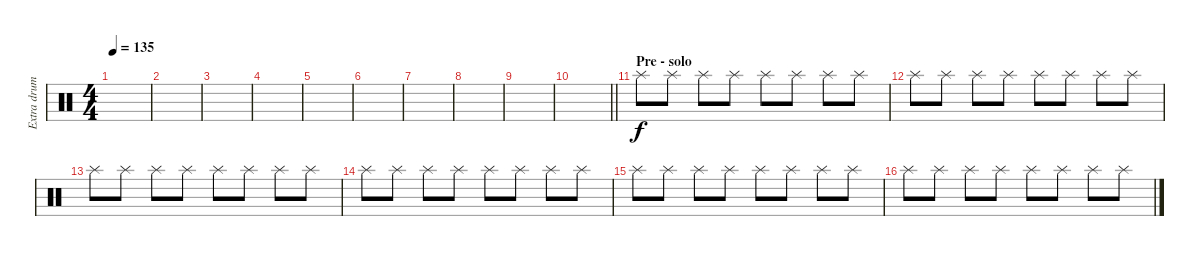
\track ("Extra drums" "Extra drum") {instrument percussion}
\staff {score}
\articulation defaults
\ts (4 4)
\tempo 135
\clef neutral
\ks c
|
|
|
|
|
|
|
|
|
\barLineRight lightlight
|
\section ("" "Pre - solo")
"Splash (hit)".8 "Splash (hit)".8 "Splash (hit)".8 "Splash (hit)".8 "Splash (hit)".8 "Splash (hit)".8 "Splash (hit)".8 "Splash (hit)".8 |
"Splash (hit)".8 "Splash (hit)".8 "Splash (hit)".8 "Splash (hit)".8 "Splash (hit)".8 "Splash (hit)".8 "Splash (hit)".8 "Splash (hit)".8 |
"Splash (hit)".8 "Splash (hit)".8 "Splash (hit)".8 "Splash (hit)".8 "Splash (hit)".8 "Splash (hit)".8 "Splash (hit)".8 "Splash (hit)".8 |
"Splash (hit)".8 "Splash (hit)".8 "Splash (hit)".8 "Splash (hit)".8 "Splash (hit)".8 "Splash (hit)".8 "Splash (hit)".8 "Splash (hit)".8 |
"Splash (hit)".8 "Splash (hit)".8 "Splash (hit)".8 "Splash (hit)".8 "Splash (hit)".8 "Splash (hit)".8 "Splash (hit)".8 "Splash (hit)".8 |
"Splash (hit)".8 "Splash (hit)".8 "Splash (hit)".8 "Splash (hit)".8 "Splash (hit)".8 "Splash (hit)".8 "Splash (hit)".8 "Splash (hit)".8
